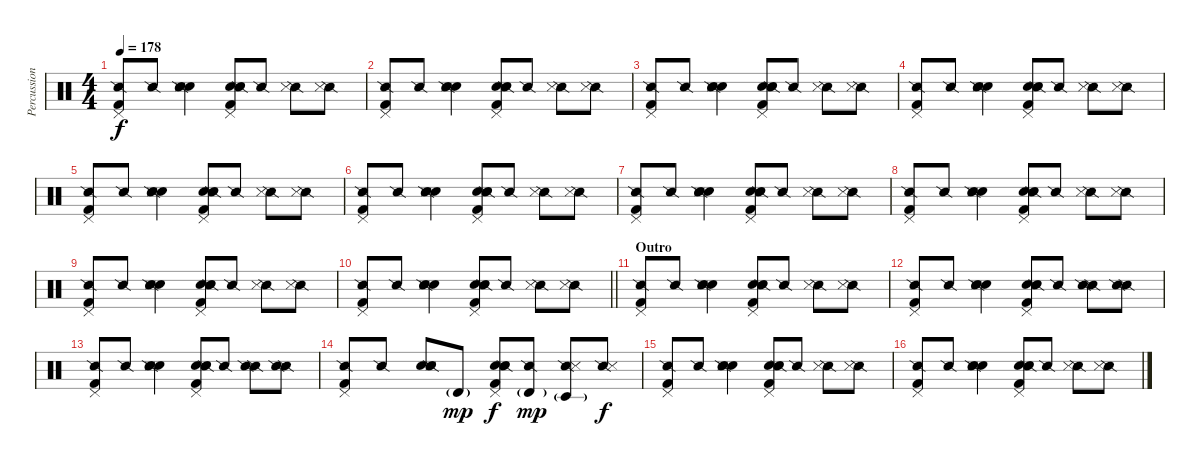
\track ("Percussion" "Percussion") {instrument percussion}
\staff {score}
\articulation defaults
\ts (4 4)
\tempo 178
\clef neutral
\ks c
("Pedal Hi-Hat (hit)" "Kick (hit) 2" "Snare (side stick) 2").8{dy f} "Snare (side stick) 2".8 ("Hand Clap (hit)" "Hand Clap (hit)" "Snare (side stick) 2" "Metronome (hit)").4 ("Pedal Hi-Hat (hit)" "Hand Clap (hit)" "Hand Clap (hit)" "Kick (hit) 2" "Snare (side stick) 2").8 "Snare (side stick) 2".8 ("Snare (side stick) 2" "Metronome (hit)").8 ("Snare (side stick) 2" "Metronome (hit)").8 |
("Pedal Hi-Hat (hit)" "Kick (hit) 2" "Snare (side stick) 2").8 "Snare (side stick) 2".8 ("Hand Clap (hit)" "Hand Clap (hit)" "Snare (side stick) 2" "Metronome (hit)").4 ("Pedal Hi-Hat (hit)" "Hand Clap (hit)" "Hand Clap (hit)" "Kick (hit) 2" "Snare (side stick) 2").8 "Snare (side stick) 2".8 ("Snare (side stick) 2" "Metronome (hit)").8 ("Snare (side stick) 2" "Metronome (hit)").8 |
("Pedal Hi-Hat (hit)" "Kick (hit) 2" "Snare (side stick) 2").8 "Snare (side stick) 2".8 ("Hand Clap (hit)" "Hand Clap (hit)" "Snare (side stick) 2" "Metronome (hit)").4 ("Pedal Hi-Hat (hit)" "Hand Clap (hit)" "Hand Clap (hit)" "Kick (hit) 2" "Snare (side stick) 2").8 "Snare (side stick) 2".8 ("Snare (side stick) 2" "Metronome (hit)").8 ("Snare (side stick) 2" "Metronome (hit)").8 |
("Pedal Hi-Hat (hit)" "Kick (hit) 2" "Snare (side stick) 2").8 "Snare (side stick) 2".8 ("Hand Clap (hit)" "Hand Clap (hit)" "Snare (side stick) 2" "Metronome (hit)").4 ("Pedal Hi-Hat (hit)" "Hand Clap (hit)" "Hand Clap (hit)" "Kick (hit) 2" "Snare (side stick) 2").8 "Snare (side stick) 2".8 ("Snare (side stick) 2" "Metronome (hit)").8 ("Snare (side stick) 2" "Metronome (hit)").8 |
("Pedal Hi-Hat (hit)" "Kick (hit) 2" "Snare (side stick) 2").8 "Snare (side stick) 2".8 ("Hand Clap (hit)" "Hand Clap (hit)" "Snare (side stick) 2" "Metronome (hit)").4 ("Pedal Hi-Hat (hit)" "Hand Clap (hit)" "Hand Clap (hit)" "Kick (hit) 2" "Snare (side stick) 2").8 "Snare (side stick) 2".8 ("Snare (side stick) 2" "Metronome (hit)").8 ("Snare (side stick) 2" "Metronome (hit)").8 |
("Pedal Hi-Hat (hit)" "Kick (hit) 2" "Snare (side stick) 2").8 "Snare (side stick) 2".8 ("Hand Clap (hit)" "Hand Clap (hit)" "Snare (side stick) 2" "Metronome (hit)").4 ("Pedal Hi-Hat (hit)" "Hand Clap (hit)" "Hand Clap (hit)" "Kick (hit) 2" "Snare (side stick) 2").8 "Snare (side stick) 2".8 ("Snare (side stick) 2" "Metronome (hit)").8 ("Snare (side stick) 2" "Metronome (hit)").8 |
("Pedal Hi-Hat (hit)" "Kick (hit) 2" "Snare (side stick) 2").8 "Snare (side stick) 2".8 ("Hand Clap (hit)" "Hand Clap (hit)" "Snare (side stick) 2" "Metronome (hit)").4 ("Pedal Hi-Hat (hit)" "Hand Clap (hit)" "Hand Clap (hit)" "Kick (hit) 2" "Snare (side stick) 2").8 "Snare (side stick) 2".8 ("Snare (side stick) 2" "Metronome (hit)").8 ("Snare (side stick) 2" "Metronome (hit)").8 |
("Pedal Hi-Hat (hit)" "Kick (hit) 2" "Snare (side stick) 2").8 "Snare (side stick) 2".8 ("Hand Clap (hit)" "Hand Clap (hit)" "Snare (side stick) 2" "Metronome (hit)").4 ("Pedal Hi-Hat (hit)" "Hand Clap (hit)" "Hand Clap (hit)" "Kick (hit) 2" "Snare (side stick) 2").8 "Snare (side stick) 2".8 ("Snare (side stick) 2" "Metronome (hit)").8 ("Snare (side stick) 2" "Metronome (hit)").8 |
("Pedal Hi-Hat (hit)" "Kick (hit) 2" "Snare (side stick) 2").8 "Snare (side stick) 2".8 ("Hand Clap (hit)" "Hand Clap (hit)" "Snare (side stick) 2" "Metronome (hit)").4 ("Pedal Hi-Hat (hit)" "Hand Clap (hit)" "Hand Clap (hit)" "Kick (hit) 2" "Snare (side stick) 2").8 "Snare (side stick) 2".8 ("Snare (side stick) 2" "Metronome (hit)").8 ("Snare (side stick) 2" "Metronome (hit)").8 |
\barLineRight lightlight
("Pedal Hi-Hat (hit)" "Kick (hit) 2" "Snare (side stick) 2").8 "Snare (side stick) 2".8 ("Hand Clap (hit)" "Hand Clap (hit)" "Snare (side stick) 2" "Metronome (hit)").4 ("Pedal Hi-Hat (hit)" "Hand Clap (hit)" "Hand Clap (hit)" "Kick (hit) 2" "Snare (side stick) 2").8 "Snare (side stick) 2".8 ("Snare (side stick) 2" "Metronome (hit)").8 ("Snare (side stick) 2" "Metronome (hit)").8 |
\section ("" "Outro")
("Pedal Hi-Hat (hit)" "Kick (hit) 2" "Snare (side stick) 2").8 "Snare (side stick) 2".8 ("Hand Clap (hit)" "Hand Clap (hit)" "Snare (side stick) 2" "Metronome (hit)").4 ("Pedal Hi-Hat (hit)" "Hand Clap (hit)" "Hand Clap (hit)" "Kick (hit) 2" "Snare (side stick) 2").8 "Snare (side stick) 2".8 ("Snare (side stick) 2" "Metronome (hit)").8 ("Snare (side stick) 2" "Metronome (hit)").8 |
("Pedal Hi-Hat (hit)" "Kick (hit) 2" "Snare (side stick) 2").8 "Snare (side stick) 2".8 ("Hand Clap (hit)" "Hand Clap (hit)" "Snare (side stick) 2" "Metronome (hit)").4 ("Pedal Hi-Hat (hit)" "Hand Clap (hit)" "Hand Clap (hit)" "Kick (hit) 2" "Snare (side stick) 2").8 "Snare (side stick) 2".8 ("Snare (side stick) 2" "Snare (side stick) 2").8 ("Snare (side stick) 2" "Snare (side stick) 2").8 |
("Pedal Hi-Hat (hit)" "Kick (hit) 2" "Snare (side stick) 2").8 "Snare (side stick) 2".8 ("Hand Clap (hit)" "Hand Clap (hit)" "Snare (side stick) 2" "Metronome (hit)").4 ("Pedal Hi-Hat (hit)" "Hand Clap (hit)" "Hand Clap (hit)" "Kick (hit) 2" "Snare (side stick) 2").8 "Snare (side stick) 2".8 ("Snare (side stick) 2" "Snare (side stick) 2").8 ("Snare (side stick) 2" "Snare (side stick) 2").8 |
("Pedal Hi-Hat (hit)" "Kick (hit) 2" "Snare (side stick) 2").8 "Snare (side stick) 2".8 ("Hand Clap (hit)" "Hand Clap (hit)" "Snare (side stick) 2" "Metronome (hit)").8 "Timbale high (hit)"{g}.8{dy mp} ("Pedal Hi-Hat (hit)" "Hand Clap (hit)" "Hand Clap (hit)" "Kick (hit) 2" "Snare (side stick) 2").8{dy f} ("Timbale high (hit)"{g} "Snare (side stick) 2").8{dy mp} ("Timbale low (hit)"{g} "Snare (side stick) 2" "Metronome (hit)").8 ("Snare (side stick) 2" "Metronome (hit)").8{dy f} |
("Pedal Hi-Hat (hit)" "Kick (hit) 2" "Snare (side stick) 2").8 "Snare (side stick) 2".8 ("Hand Clap (hit)" "Hand Clap (hit)" "Snare (side stick) 2" "Metronome (hit)").4 ("Pedal Hi-Hat (hit)" "Hand Clap (hit)" "Hand Clap (hit)" "Kick (hit) 2" "Snare (side stick) 2").8 "Snare (side stick) 2".8 ("Snare (side stick) 2" "Metronome (hit)").8 ("Snare (side stick) 2" "Metronome (hit)").8 |
("Pedal Hi-Hat (hit)" "Kick (hit) 2" "Snare (side stick) 2").8 "Snare (side stick) 2".8 ("Hand Clap (hit)" "Hand Clap (hit)" "Snare (side stick) 2" "Metronome (hit)").4 ("Pedal Hi-Hat (hit)" "Hand Clap (hit)" "Hand Clap (hit)" "Kick (hit) 2" "Snare (side stick) 2").8 "Snare (side stick) 2".8 ("Snare (side stick) 2" "Metronome (hit)").8 ("Snare (side stick) 2" "Metronome (hit)").8
